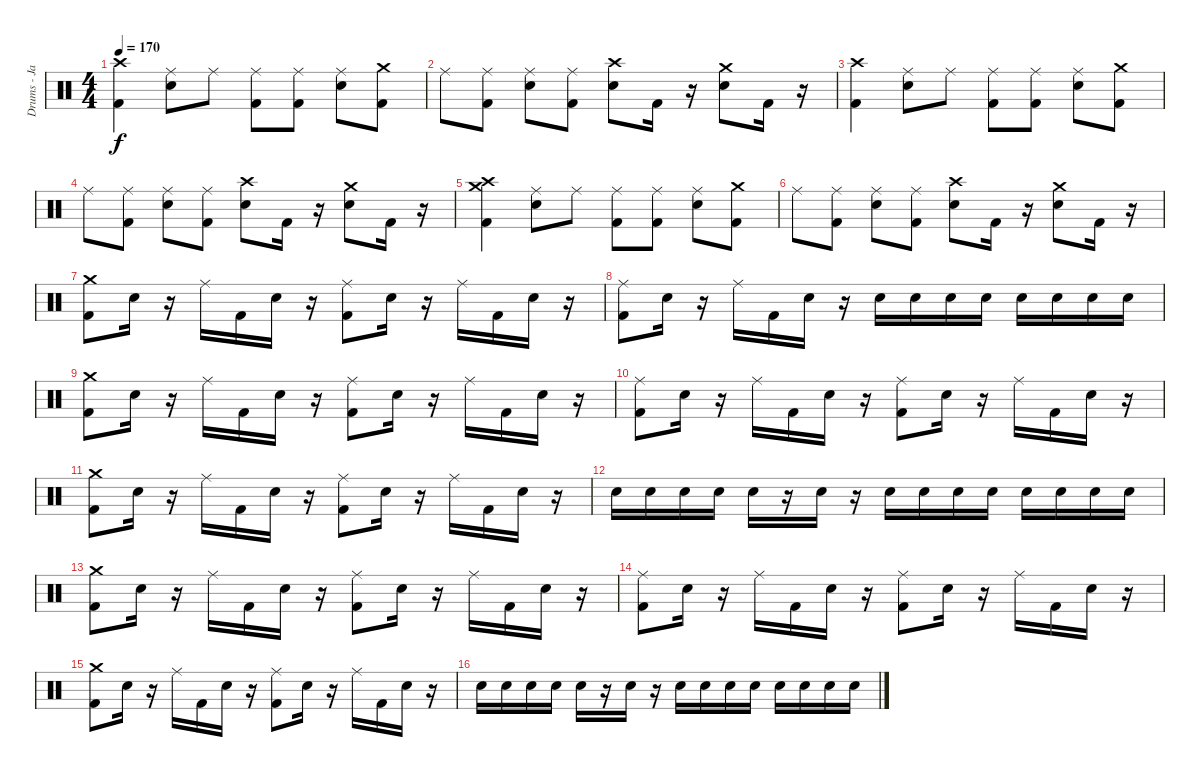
\track ("Drums - Jasper Blazer" "Drums - Ja") {instrument percussion}
\staff {score}
\articulation defaults
\ts (4 4)
\tempo 170
\clef neutral
\ks c
("Kick (hit) 2" "Crash high (hit)").4{dy f} ("Electric Snare (hit)" "Ride (middle)").8 "Ride (middle)".8 ("Kick (hit) 2" "Ride (middle)").8 ("Kick (hit) 2" "Ride (middle)").8 ("Electric Snare (hit)" "Ride (middle)").8 ("Kick (hit) 2" "Crash medium (hit)").8 |
"Ride (middle)".8 ("Kick (hit) 2" "Ride (middle)").8 ("Electric Snare (hit)" "Ride (middle)").8 ("Kick (hit) 2" "Ride (middle)").8 ("Electric Snare (hit)" "Crash high (hit)").8 "Kick (hit) 2".16 r.16 ("Electric Snare (hit)" "Crash medium (hit)").8 "Kick (hit) 2".16 r.16 |
("Kick (hit) 2" "Crash high (hit)").4 ("Electric Snare (hit)" "Ride (middle)").8 "Ride (middle)".8 ("Kick (hit) 2" "Ride (middle)").8 ("Kick (hit) 2" "Ride (middle)").8 ("Electric Snare (hit)" "Ride (middle)").8 ("Kick (hit) 2" "Crash medium (hit)").8 |
"Ride (middle)".8 ("Kick (hit) 2" "Ride (middle)").8 ("Electric Snare (hit)" "Ride (middle)").8 ("Kick (hit) 2" "Ride (middle)").8 ("Electric Snare (hit)" "Crash high (hit)").8 "Kick (hit) 2".16 r.16 ("Electric Snare (hit)" "Crash medium (hit)").8 "Kick (hit) 2".16 r.16 |
("Kick (hit) 2" "Crash medium (hit)" "Crash high (hit)").4 ("Electric Snare (hit)" "Ride (middle)").8 "Ride (middle)".8 ("Kick (hit) 2" "Ride (middle)").8 ("Kick (hit) 2" "Ride (middle)").8 ("Electric Snare (hit)" "Ride (middle)").8 ("Kick (hit) 2" "Crash medium (hit)").8 |
"Ride (middle)".8 ("Kick (hit) 2" "Ride (middle)").8 ("Electric Snare (hit)" "Ride (middle)").8 ("Kick (hit) 2" "Ride (middle)").8 ("Electric Snare (hit)" "Crash high (hit)").8 "Kick (hit) 2".16 r.16 ("Electric Snare (hit)" "Crash medium (hit)").8 "Kick (hit) 2".16 r.16 |
("Kick (hit) 2" "Crash medium (hit)").8 "Electric Snare (hit)".16 r.16 "Ride (middle)".16 "Kick (hit) 2".16 "Electric Snare (hit)".16 r.16 ("Kick (hit) 2" "Ride (middle)").8 "Electric Snare (hit)".16 r.16 "Ride (middle)".16 "Kick (hit) 2".16 "Electric Snare (hit)".16 r.16 |
("Kick (hit) 2" "Ride (middle)").8 "Electric Snare (hit)".16 r.16 "Ride (middle)".16 "Kick (hit) 2".16 "Electric Snare (hit)".16 r.16 "Electric Snare (hit)".16 "Electric Snare (hit)".16 "Electric Snare (hit)".16 "Electric Snare (hit)".16 "Electric Snare (hit)".16 "Electric Snare (hit)".16 "Electric Snare (hit)".16 "Electric Snare (hit)".16 |
("Kick (hit) 2" "Crash medium (hit)").8 "Electric Snare (hit)".16 r.16 "Ride (middle)".16 "Kick (hit) 2".16 "Electric Snare (hit)".16 r.16 ("Kick (hit) 2" "Ride (middle)").8 "Electric Snare (hit)".16 r.16 "Ride (middle)".16 "Kick (hit) 2".16 "Electric Snare (hit)".16 r.16 |
("Kick (hit) 2" "Ride (middle)").8 "Electric Snare (hit)".16 r.16 "Ride (middle)".16 "Kick (hit) 2".16 "Electric Snare (hit)".16 r.16 ("Kick (hit) 2" "Ride (middle)").8 "Electric Snare (hit)".16 r.16 "Ride (middle)".16 "Kick (hit) 2".16 "Electric Snare (hit)".16 r.16 |
("Kick (hit) 2" "Crash medium (hit)").8 "Electric Snare (hit)".16 r.16 "Ride (middle)".16 "Kick (hit) 2".16 "Electric Snare (hit)".16 r.16 ("Kick (hit) 2" "Ride (middle)").8 "Electric Snare (hit)".16 r.16 "Ride (middle)".16 "Kick (hit) 2".16 "Electric Snare (hit)".16 r.16 |
"Electric Snare (hit)".16 "Electric Snare (hit)".16 "Electric Snare (hit)".16 "Electric Snare (hit)".16 "Electric Snare (hit)".16 r.16 "Electric Snare (hit)".16 r.16 "Electric Snare (hit)".16 "Electric Snare (hit)".16 "Electric Snare (hit)".16 "Electric Snare (hit)".16 "Electric Snare (hit)".16 "Electric Snare (hit)".16 "Electric Snare (hit)".16 "Electric Snare (hit)".16 |
("Kick (hit) 2" "Crash medium (hit)").8 "Electric Snare (hit)".16 r.16 "Ride (middle)".16 "Kick (hit) 2".16 "Electric Snare (hit)".16 r.16 ("Kick (hit) 2" "Ride (middle)").8 "Electric Snare (hit)".16 r.16 "Ride (middle)".16 "Kick (hit) 2".16 "Electric Snare (hit)".16 r.16 |
("Kick (hit) 2" "Ride (middle)").8 "Electric Snare (hit)".16 r.16 "Ride (middle)".16 "Kick (hit) 2".16 "Electric Snare (hit)".16 r.16 ("Kick (hit) 2" "Ride (middle)").8 "Electric Snare (hit)".16 r.16 "Ride (middle)".16 "Kick (hit) 2".16 "Electric Snare (hit)".16 r.16 |
("Kick (hit) 2" "Crash medium (hit)").8 "Electric Snare (hit)".16 r.16 "Ride (middle)".16 "Kick (hit) 2".16 "Electric Snare (hit)".16 r.16 ("Kick (hit) 2" "Ride (middle)").8 "Electric Snare (hit)".16 r.16 "Ride (middle)".16 "Kick (hit) 2".16 "Electric Snare (hit)".16 r.16 |
"Electric Snare (hit)".16 "Electric Snare (hit)".16 "Electric Snare (hit)".16 "Electric Snare (hit)".16 "Electric Snare (hit)".16 r.16 "Electric Snare (hit)".16 r.16 "Electric Snare (hit)".16 "Electric Snare (hit)".16 "Electric Snare (hit)".16 "Electric Snare (hit)".16 "Electric Snare (hit)".16 "Electric Snare (hit)".16 "Electric Snare (hit)".16 "Electric Snare (hit)".16
